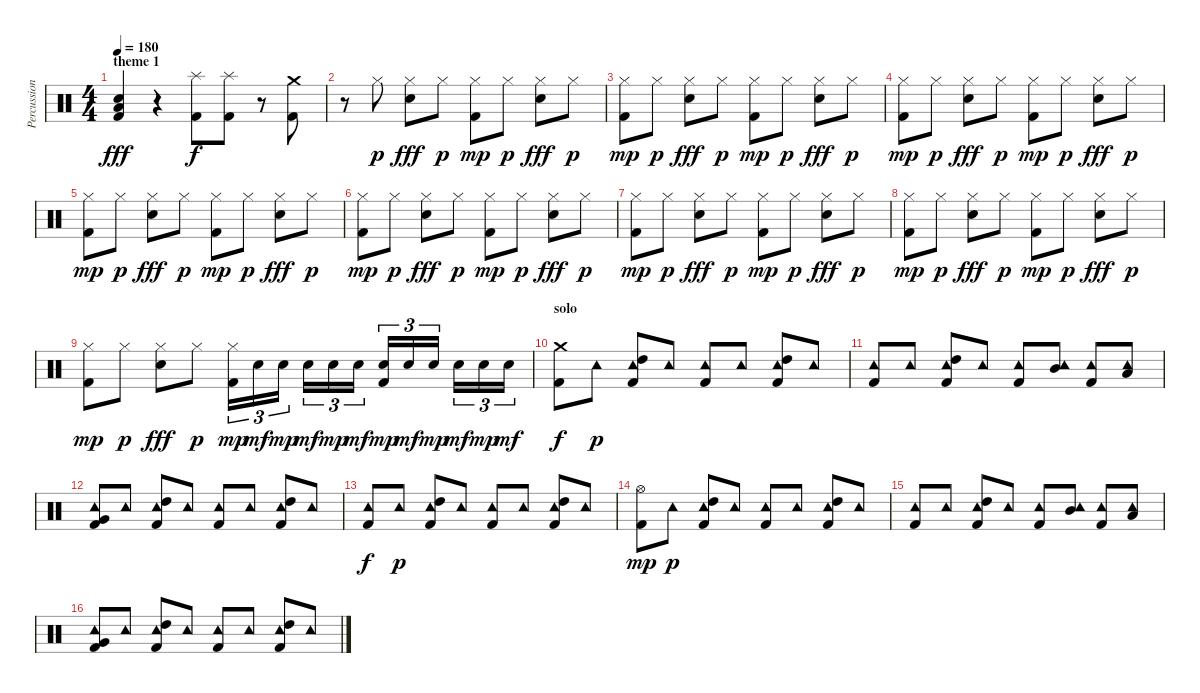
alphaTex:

\track ("Percussions" "Percussion") {instrument percussion}
\staff {score}
\articulation defaults
\ts (4 4)
\section ("" "theme 1")
\tempo 180
\clef neutral
\ks c
("Low Tom (hit)" "Electric Snare (hit)" "Kick (hit) 2").4{dy fff} r.4 ("Splash (hit)" "Kick (hit) 2").8{dy f} ("Splash (hit)" "Kick (hit) 2").8 r.8 ("Crash medium (hit)" "Kick (hit) 2").8 |
r.8 "Hi-Hat (closed)".8{dy p} ("Hi-Hat (closed)" "Electric Snare (hit)").8{dy fff} "Hi-Hat (closed)".8{dy p} ("Hi-Hat (closed)" "Kick (hit) 2").8{dy mp} "Hi-Hat (closed)".8{dy p} ("Hi-Hat (closed)" "Electric Snare (hit)").8{dy fff} "Hi-Hat (closed)".8{dy p} |
("Hi-Hat (closed)" "Kick (hit) 2").8{dy mp} "Hi-Hat (closed)".8{dy p} ("Hi-Hat (closed)" "Electric Snare (hit)").8{dy fff} "Hi-Hat (closed)".8{dy p} ("Hi-Hat (closed)" "Kick (hit) 2").8{dy mp} "Hi-Hat (closed)".8{dy p} ("Hi-Hat (closed)" "Electric Snare (hit)").8{dy fff} "Hi-Hat (closed)".8{dy p} |
("Hi-Hat (closed)" "Kick (hit) 2").8{dy mp} "Hi-Hat (closed)".8{dy p} ("Hi-Hat (closed)" "Electric Snare (hit)").8{dy fff} "Hi-Hat (closed)".8{dy p} ("Hi-Hat (closed)" "Kick (hit) 2").8{dy mp} "Hi-Hat (closed)".8{dy p} ("Hi-Hat (closed)" "Electric Snare (hit)").8{dy fff} "Hi-Hat (closed)".8{dy p} |
("Hi-Hat (closed)" "Kick (hit) 2").8{dy mp} "Hi-Hat (closed)".8{dy p} ("Hi-Hat (closed)" "Electric Snare (hit)").8{dy fff} "Hi-Hat (closed)".8{dy p} ("Hi-Hat (closed)" "Kick (hit) 2").8{dy mp} "Hi-Hat (closed)".8{dy p} ("Hi-Hat (closed)" "Electric Snare (hit)").8{dy fff} "Hi-Hat (closed)".8{dy p} |
("Hi-Hat (closed)" "Kick (hit) 2").8{dy mp} "Hi-Hat (closed)".8{dy p} ("Hi-Hat (closed)" "Electric Snare (hit)").8{dy fff} "Hi-Hat (closed)".8{dy p} ("Hi-Hat (closed)" "Kick (hit) 2").8{dy mp} "Hi-Hat (closed)".8{dy p} ("Hi-Hat (closed)" "Electric Snare (hit)").8{dy fff} "Hi-Hat (closed)".8{dy p} |
("Hi-Hat (closed)" "Kick (hit) 2").8{dy mp} "Hi-Hat (closed)".8{dy p} ("Hi-Hat (closed)" "Electric Snare (hit)").8{dy fff} "Hi-Hat (closed)".8{dy p} ("Hi-Hat (closed)" "Kick (hit) 2").8{dy mp} "Hi-Hat (closed)".8{dy p} ("Hi-Hat (closed)" "Electric Snare (hit)").8{dy fff} "Hi-Hat (closed)".8{dy p} |
("Hi-Hat (closed)" "Kick (hit) 2").8{dy mp} "Hi-Hat (closed)".8{dy p} ("Hi-Hat (closed)" "Electric Snare (hit)").8{dy fff} "Hi-Hat (closed)".8{dy p} ("Hi-Hat (closed)" "Kick (hit) 2").8{dy mp} "Hi-Hat (closed)".8{dy p} ("Hi-Hat (closed)" "Electric Snare (hit)").8{dy fff} "Hi-Hat (closed)".8{dy p} |
("Hi-Hat (closed)" "Kick (hit) 2").8{dy mp} "Hi-Hat (closed)".8{dy p} ("Hi-Hat (closed)" "Electric Snare (hit)").8{dy fff} "Hi-Hat (closed)".8{dy p} ("Hi-Hat (closed)" "Kick (hit) 2").16{tu (3 2) dy mp} "Electric Snare (hit)".16{tu (3 2) dy mf} "Electric Snare (hit)".16{tu (3 2) dy mp} "Electric Snare (hit)".16{tu (3 2) dy mf} "Electric Snare (hit)".16{tu (3 2) dy mp} "Electric Snare (hit)".16{tu (3 2) dy mf} ("Electric Snare (hit)" "Kick (hit) 2").16{tu (3 2) dy mp} "Electric Snare (hit)".16{tu (3 2) dy mf} "Electric Snare (hit)".16{tu (3 2) dy mp} "Electric Snare (hit)".16{tu (3 2) dy mf} "Electric Snare (hit)".16{tu (3 2) dy mp} "Electric Snare (hit)".16{tu (3 2) dy mf} |
\section ("" "solo")
("Crash medium (hit)" "Kick (hit) 2").8{dy f} "Tambourine (hit)".8{dy p} ("Tambourine (hit)" "High Tom (hit)" "Kick (hit) 2").8 "Tambourine (hit)".8 ("Tambourine (hit)" "Kick (hit) 2").8 "Tambourine (hit)".8 ("Tambourine (hit)" "High Tom (hit)" "Kick (hit) 2").8 "Tambourine (hit)".8 |
("Tambourine (hit)" "Kick (hit) 2").8 "Tambourine (hit)".8 ("Tambourine (hit)" "High Tom (hit)" "Kick (hit) 2").8 "Tambourine (hit)".8 ("Tambourine (hit)" "Kick (hit) 2").8 ("Tambourine (hit)" "Mid Tom (hit)").8 ("Tambourine (hit)" "Kick (hit) 2").8 ("Tambourine (hit)" "Low Tom (hit)").8 |
("Tambourine (hit)" "Very Low Tom (hit)" "Kick (hit) 2").8 "Tambourine (hit)".8 ("Tambourine (hit)" "High Tom (hit)" "Kick (hit) 2").8 "Tambourine (hit)".8 ("Tambourine (hit)" "Kick (hit) 2").8 "Tambourine (hit)".8 ("Tambourine (hit)" "High Tom (hit)" "Kick (hit) 2").8 "Tambourine (hit)".8 |
("Tambourine (hit)" "Kick (hit) 2").8{dy f} "Tambourine (hit)".8{dy p} ("Tambourine (hit)" "High Tom (hit)" "Kick (hit) 2").8 "Tambourine (hit)".8 ("Tambourine (hit)" "Kick (hit) 2").8 "Tambourine (hit)".8 ("Tambourine (hit)" "High Tom (hit)" "Kick (hit) 2").8 "Tambourine (hit)".8 |
("Hi-Hat (open)" "Kick (hit) 2").8{dy mp} "Tambourine (hit)".8{dy p} ("Tambourine (hit)" "High Tom (hit)" "Kick (hit) 2").8 "Tambourine (hit)".8 ("Tambourine (hit)" "Kick (hit) 2").8 "Tambourine (hit)".8 ("Tambourine (hit)" "High Tom (hit)" "Kick (hit) 2").8 "Tambourine (hit)".8 |
("Tambourine (hit)" "Kick (hit) 2").8 "Tambourine (hit)".8 ("Tambourine (hit)" "High Tom (hit)" "Kick (hit) 2").8 "Tambourine (hit)".8 ("Tambourine (hit)" "Kick (hit) 2").8 ("Tambourine (hit)" "Mid Tom (hit)").8 ("Tambourine (hit)" "Kick (hit) 2").8 ("Tambourine (hit)" "Low Tom (hit)").8 |
("Tambourine (hit)" "Very Low Tom (hit)" "Kick (hit) 2").8 "Tambourine (hit)".8 ("Tambourine (hit)" "High Tom (hit)" "Kick (hit) 2").8 "Tambourine (hit)".8 ("Tambourine (hit)" "Kick (hit) 2").8 "Tambourine (hit)".8 ("Tambourine (hit)" "High Tom (hit)" "Kick (hit) 2").8 "Tambourine (hit)".8
